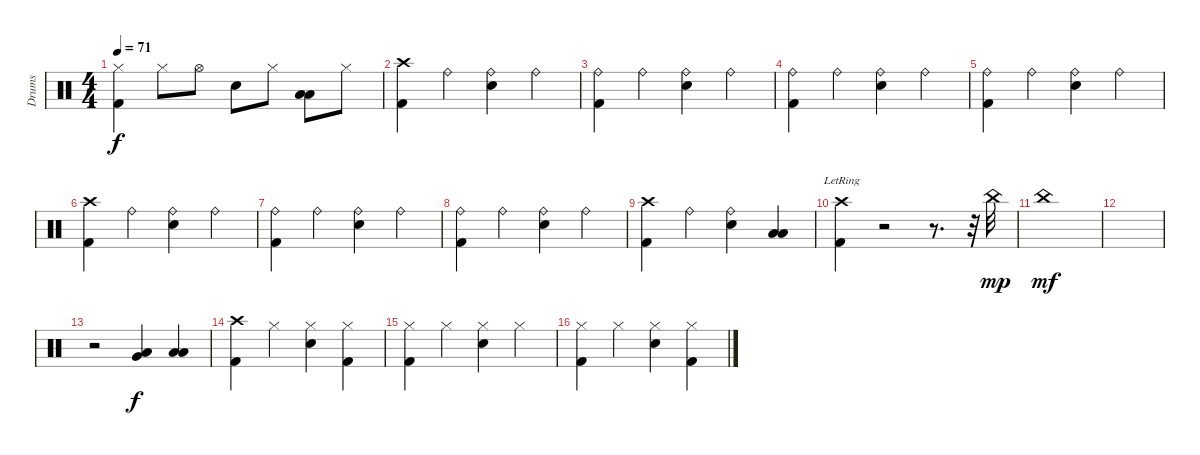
\track ("Drums" "Drums") {instrument percussion}
\staff {score}
\articulation defaults
\ts (4 4)
\tempo 71
\clef neutral
\ks c
("Hi-Hat (closed)" "Kick (hit) 2").4{dy f} "Hi-Hat (closed)".8 "Hi-Hat (open)".8 "Snare (hit) 2".8 "Hi-Hat (closed)".8 ("Low Floor Tom (hit)" "Low Tom (hit)").8 "Hi-Hat (closed)".8 |
("Crash high (hit)" "Kick (hit) 2").4 "Ride (bell)".4 ("Ride (bell)" "Snare (hit) 2").4 "Ride (bell)".4 |
("Ride (bell)" "Kick (hit) 2").4 "Ride (bell)".4 ("Ride (bell)" "Snare (hit) 2").4 "Ride (bell)".4 |
("Ride (bell)" "Kick (hit) 2").4 "Ride (bell)".4 ("Ride (bell)" "Snare (hit) 2").4 "Ride (bell)".4 |
("Ride (bell)" "Kick (hit) 2").4 "Ride (bell)".4 ("Ride (bell)" "Snare (hit) 2").4 "Ride (bell)".4 |
("Crash high (hit)" "Kick (hit) 2").4 "Ride (bell)".4 ("Ride (bell)" "Snare (hit) 2").4 "Ride (bell)".4 |
("Ride (bell)" "Kick (hit) 2").4 "Ride (bell)".4 ("Ride (bell)" "Snare (hit) 2").4 "Ride (bell)".4 |
("Ride (bell)" "Kick (hit) 2").4 "Ride (bell)".4 ("Ride (bell)" "Snare (hit) 2").4 "Ride (bell)".4 |
("Crash high (hit)" "Kick (hit) 2").4 "Ride (bell)".4 ("Ride (bell)" "Snare (hit) 2").4 ("Low Tom (hit)" "Low Floor Tom (hit)").4 |
("Crash high (hit)"{lr} "Kick (hit) 2"{lr}).4 r.2 r.8{d} r.32 "China (hit)".32{dy mp} |
"China (hit)".1{dy mf} |
|
r.2 ("Very Low Tom (hit)" "Low Tom (hit)").4{dy f} ("Low Floor Tom (hit)" "Low Tom (hit)").4 |
("Crash high (hit)" "Kick (hit) 2").4 "Hi-Hat (closed)".4 ("Hi-Hat (closed)" "Snare (hit) 2").4 ("Hi-Hat (closed)" "Kick (hit) 2").4 |
("Hi-Hat (closed)" "Kick (hit) 2").4 "Hi-Hat (closed)".4 ("Hi-Hat (closed)" "Snare (hit) 2").4 "Hi-Hat (closed)".4 |
("Hi-Hat (closed)" "Kick (hit) 2").4 "Hi-Hat (closed)".4 ("Hi-Hat (closed)" "Snare (hit) 2").4 ("Hi-Hat (closed)" "Kick (hit) 2").4
